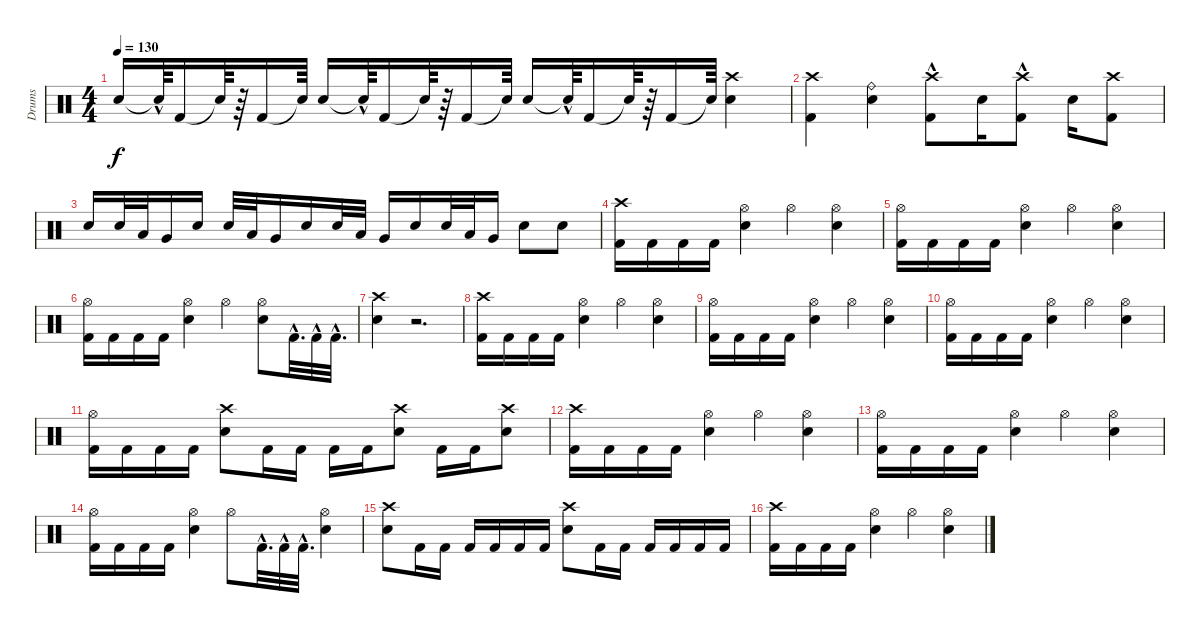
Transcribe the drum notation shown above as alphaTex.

\track ("Drums" "Drums") {instrument percussion}
\staff {score}
\articulation defaults
\ts (4 4)
\tempo 130
\clef neutral
\ks c "Snare (hit) 2".16{dy f} "Snare (hit)"{hac t}.64 "Kick (hit) 2".16 "Snare (hit)"{t}.64
r.64 "Kick (hit) 2".16 "Snare (hit)"{t}.64 "Snare (hit) 2".16 "Snare (hit)"{hac t}.64 "Kick (hit) 2".16 "Snare (hit)"{t}.64 r.64 "Kick (hit) 2".16 "Snare (hit)"{t}.64 "Snare (hit) 2".16 "Snare (hit)"{hac t}.64 "Kick (hit) 2".16 "Snare (hit)"{t}.64 r.64 "Kick (hit) 2".16 "Snare (hit)"{t}.64 ("Snare (hit) 2" "Crash high (hit)").4 |
("Kick (hit) 2" "Crash high (hit)").4 ("Snare (hit) 2" "Ride (bell)").4 ("Kick (hit) 2"{hac} "Crash high (hit)").8 "Snare (hit) 2".16 ("Kick (hit) 2"{hac} "Crash high (hit)").8 "Snare (hit) 2".16 ("Kick (hit) 2" "Crash high (hit)").8 |
"Snare (hit) 2".16 "Snare (hit) 2".32 "Low Tom (hit)".32 "Very Low Tom (hit)".16 "Snare (hit) 2".16 "Snare (hit) 2".32 "Low Tom (hit)".32 "Very Low Tom (hit)".16 "Snare (hit) 2".16 "Snare (hit) 2".32 "Low Tom (hit)".32 "Very Low Tom (hit)".16 "Snare (hit) 2".16 "Snare (hit) 2".32 "Low Tom (hit)".32 "Very Low Tom (hit)".16 "Snare (hit) 2".8 "Snare (hit) 2".8 |
("Kick (hit) 2" "Crash high (hit)").16 "Kick (hit) 2".16 "Kick (hit) 2".16 "Kick (hit) 2".16 ("Hi-Hat (open)" "Snare (hit) 2").4 "Hi-Hat (open)".4 ("Snare (hit) 2" "Hi-Hat (open)").4 |
("Hi-Hat (open)" "Kick (hit) 2").16 "Kick (hit) 2".16 "Kick (hit) 2".16 "Kick (hit) 2".16 ("Snare (hit) 2" "Hi-Hat (open)").4 "Hi-Hat (open)".4 ("Snare (hit) 2" "Hi-Hat (open)").4 |
("Kick (hit) 2" "Hi-Hat (open)").16 "Kick (hit) 2".16 "Kick (hit) 2".16 "Kick (hit) 2".16 ("Hi-Hat (open)" "Snare (hit) 2").4 "Hi-Hat (open)".4 ("Hi-Hat (open)" "Snare (hit) 2").8 "Kick (hit) 2"{hac}.32{d} "Kick (hit) 2"{hac}.32 "Kick (hit) 2"{hac}.32{d} |
("Crash high (hit)" "Snare (hit) 2").4 r.2{d} |
("Kick (hit) 2" "Crash high (hit)").16 "Kick (hit) 2".16 "Kick (hit) 2".16 "Kick (hit) 2".16 ("Snare (hit) 2" "Hi-Hat (open)").4 "Hi-Hat (open)".4 ("Hi-Hat (open)" "Snare (hit) 2").4 |
("Hi-Hat (open)" "Kick (hit) 2").16 "Kick (hit) 2".16 "Kick (hit) 2".16 "Kick (hit) 2".16 ("Snare (hit) 2" "Hi-Hat (open)").4 "Hi-Hat (open)".4 ("Snare (hit) 2" "Hi-Hat (open)").4 |
("Hi-Hat (open)" "Kick (hit) 2").16 "Kick (hit) 2".16 "Kick (hit) 2".16 "Kick (hit) 2".16 ("Snare (hit) 2" "Hi-Hat (open)").4 "Hi-Hat (open)".4 ("Snare (hit) 2" "Hi-Hat (open)").4 |
("Hi-Hat (open)" "Kick (hit) 2").16 "Kick (hit) 2".16 "Kick (hit) 2".16 "Kick (hit) 2".16 ("Crash high (hit)" "Snare (hit) 2").8 "Kick (hit) 2".16 "Kick (hit) 2".16 "Kick (hit) 2".16 "Kick (hit) 2".16 ("Snare (hit) 2" "Crash high (hit)").8 "Kick (hit) 2".16 "Kick (hit) 2".16 ("Snare (hit) 2" "Crash high (hit)").8 |
("Crash high (hit)" "Kick (hit) 2").16 "Kick (hit) 2".16 "Kick (hit) 2".16 "Kick (hit) 2".16 ("Hi-Hat (open)" "Snare (hit) 2").4 "Hi-Hat (open)".4 ("Hi-Hat (open)" "Snare (hit) 2").4 |
("Kick (hit) 2" "Hi-Hat (open)").16 "Kick (hit) 2".16 "Kick (hit) 2".16 "Kick (hit) 2".16 ("Hi-Hat (open)" "Snare (hit) 2").4 "Hi-Hat (open)".4 ("Hi-Hat (open)" "Snare (hit) 2").4 |
("Kick (hit) 2" "Hi-Hat (open)").16 "Kick (hit) 2".16 "Kick (hit) 2".16 "Kick (hit) 2".16 ("Snare (hit) 2" "Hi-Hat (open)").4 "Hi-Hat (open)".8 "Kick (hit) 2"{hac}.32{d} "Kick (hit) 2"{hac}.32 "Kick (hit) 2"{hac}.32{d} ("Hi-Hat (open)" "Snare (hit) 2").4 |
("Crash high (hit)" "Snare (hit) 2").8 "Kick (hit) 2".16 "Kick (hit) 2".16 "Kick (hit) 2".16 "Kick (hit) 2".16 "Kick (hit) 2".16 "Kick (hit) 2".16 ("Crash high (hit)" "Snare (hit) 2").8 "Kick (hit) 2".16 "Kick (hit) 2".16 "Kick (hit) 2".16 "Kick (hit) 2".16 "Kick (hit) 2".16 "Kick (hit) 2".16 |
("Kick (hit) 2" "Crash high (hit)").16 "Kick (hit) 2".16 "Kick (hit) 2".16 "Kick (hit) 2".16 ("Snare (hit) 2" "Hi-Hat (open)").4 "Hi-Hat (open)".4 ("Snare (hit) 2" "Hi-Hat (open)").4
